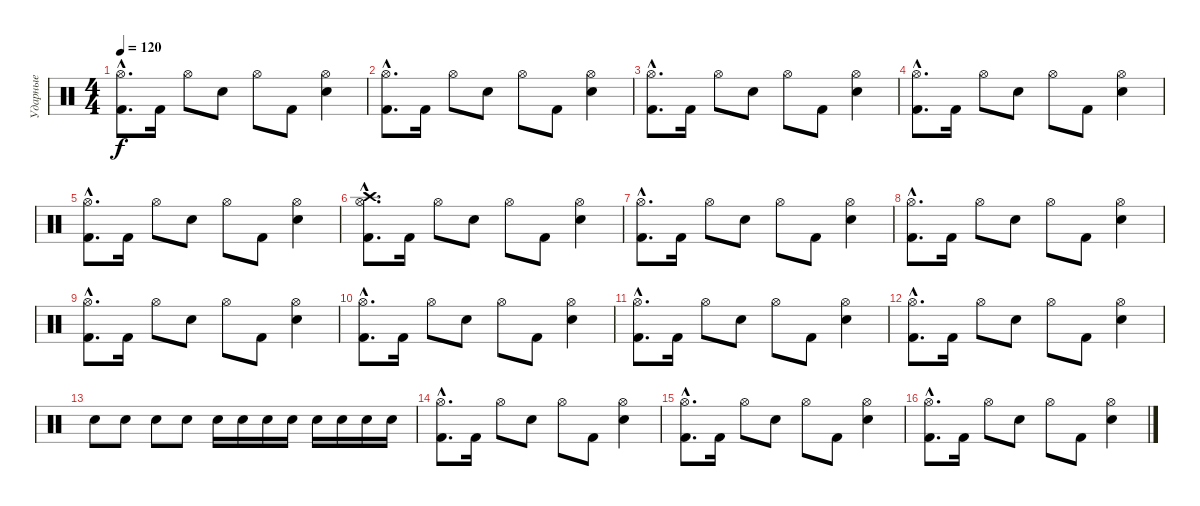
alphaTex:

\track ("Ударные" "Ударные") {instrument percussion}
\staff {score}
\articulation defaults
\ts (4 4)
\tempo 120
\clef neutral
\ks c
("Hi-Hat (open)"{hac} "Kick (hit) 2"{hac}).8{d dy f} "Kick (hit) 2".16 "Hi-Hat (open)".8 "Snare (hit) 2".8 "Hi-Hat (open)".8 "Kick (hit) 2".8 ("Hi-Hat (open)" "Snare (hit) 2").4 |
("Hi-Hat (open)"{hac} "Kick (hit) 2"{hac}).8{d} "Kick (hit) 2".16 "Hi-Hat (open)".8 "Snare (hit) 2".8 "Hi-Hat (open)".8 "Kick (hit) 2".8 ("Hi-Hat (open)" "Snare (hit) 2").4 |
("Hi-Hat (open)"{hac} "Kick (hit) 2"{hac}).8{d} "Kick (hit) 2".16 "Hi-Hat (open)".8 "Snare (hit) 2".8 "Hi-Hat (open)".8 "Kick (hit) 2".8 ("Hi-Hat (open)" "Snare (hit) 2").4 |
("Hi-Hat (open)"{hac} "Kick (hit) 2"{hac}).8{d} "Kick (hit) 2".16 "Hi-Hat (open)".8 "Snare (hit) 2".8 "Hi-Hat (open)".8 "Kick (hit) 2".8 ("Hi-Hat (open)" "Snare (hit) 2").4 |
("Hi-Hat (open)"{hac} "Kick (hit) 2"{hac}).8{d} "Kick (hit) 2".16 "Hi-Hat (open)".8 "Snare (hit) 2".8 "Hi-Hat (open)".8 "Kick (hit) 2".8 ("Hi-Hat (open)" "Snare (hit) 2").4 |
("Hi-Hat (open)"{hac} "Crash high (hit)"{hac} "Kick (hit) 2"{hac}).8{d} "Kick (hit) 2".16 "Hi-Hat (open)".8 "Snare (hit) 2".8 "Hi-Hat (open)".8 "Kick (hit) 2".8 ("Hi-Hat (open)" "Snare (hit) 2").4 |
("Hi-Hat (open)"{hac} "Kick (hit) 2"{hac}).8{d} "Kick (hit) 2".16 "Hi-Hat (open)".8 "Snare (hit) 2".8 "Hi-Hat (open)".8 "Kick (hit) 2".8 ("Hi-Hat (open)" "Snare (hit) 2").4 |
("Hi-Hat (open)"{hac} "Kick (hit) 2"{hac}).8{d} "Kick (hit) 2".16 "Hi-Hat (open)".8 "Snare (hit) 2".8 "Hi-Hat (open)".8 "Kick (hit) 2".8 ("Hi-Hat (open)" "Snare (hit) 2").4 |
("Hi-Hat (open)"{hac} "Kick (hit) 2"{hac}).8{d} "Kick (hit) 2".16 "Hi-Hat (open)".8 "Snare (hit) 2".8 "Hi-Hat (open)".8 "Kick (hit) 2".8 ("Hi-Hat (open)" "Snare (hit) 2").4 |
("Hi-Hat (open)"{hac} "Kick (hit) 2"{hac}).8{d} "Kick (hit) 2".16 "Hi-Hat (open)".8 "Snare (hit) 2".8 "Hi-Hat (open)".8 "Kick (hit) 2".8 ("Hi-Hat (open)" "Snare (hit) 2").4 |
("Hi-Hat (open)"{hac} "Kick (hit) 2"{hac}).8{d} "Kick (hit) 2".16 "Hi-Hat (open)".8 "Snare (hit) 2".8 "Hi-Hat (open)".8 "Kick (hit) 2".8 ("Hi-Hat (open)" "Snare (hit) 2").4 |
("Hi-Hat (open)"{hac} "Kick (hit) 2"{hac}).8{d} "Kick (hit) 2".16 "Hi-Hat (open)".8 "Snare (hit) 2".8 "Hi-Hat (open)".8 "Kick (hit) 2".8 ("Hi-Hat (open)" "Snare (hit) 2").4 |
"Snare (hit) 2".8 "Snare (hit) 2".8 "Snare (hit) 2".8 "Snare (hit) 2".8 "Snare (hit) 2".16 "Snare (hit) 2".16 "Snare (hit) 2".16 "Snare (hit) 2".16 "Snare (hit) 2".16 "Snare (hit) 2".16 "Snare (hit) 2".16 "Snare (hit) 2".16 |
("Hi-Hat (open)"{hac} "Kick (hit) 2"{hac}).8{d} "Kick (hit) 2".16 "Hi-Hat (open)".8 "Snare (hit) 2".8 "Hi-Hat (open)".8 "Kick (hit) 2".8 ("Hi-Hat (open)" "Snare (hit) 2").4 |
("Hi-Hat (open)"{hac} "Kick (hit) 2"{hac}).8{d} "Kick (hit) 2".16 "Hi-Hat (open)".8 "Snare (hit) 2".8 "Hi-Hat (open)".8 "Kick (hit) 2".8 ("Hi-Hat (open)" "Snare (hit) 2").4 |
("Hi-Hat (open)"{hac} "Kick (hit) 2"{hac}).8{d} "Kick (hit) 2".16 "Hi-Hat (open)".8 "Snare (hit) 2".8 "Hi-Hat (open)".8 "Kick (hit) 2".8 ("Hi-Hat (open)" "Snare (hit) 2").4
